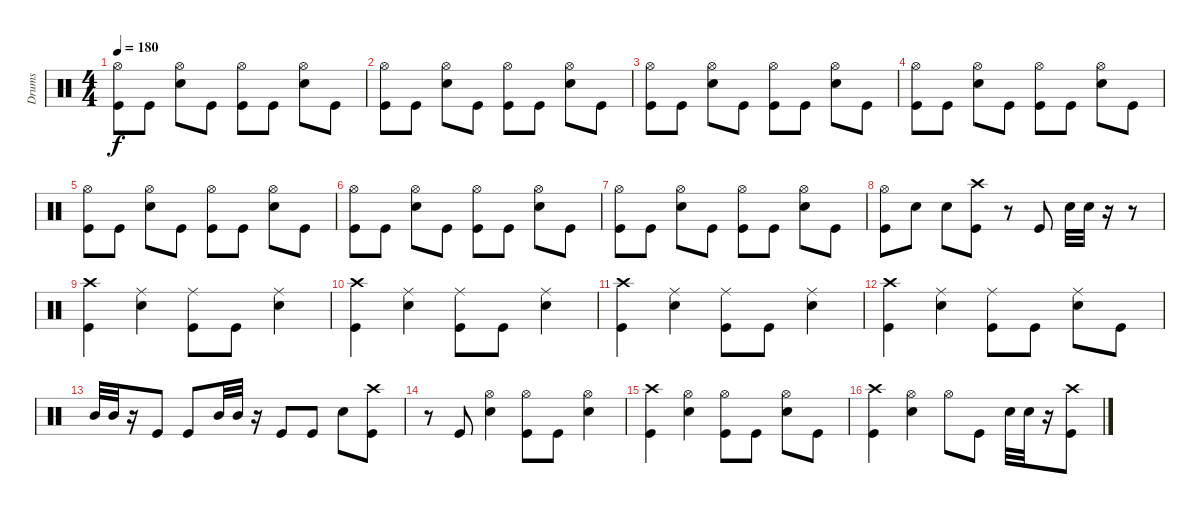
\track ("Drums" "Drums") {instrument percussion}
\staff {score}
\articulation defaults
\ts (4 4)
\tempo 180
\clef neutral
\ks c
("Hi-Hat (open)" "Kick (hit)").8{dy f} "Kick (hit)".8 ("Hi-Hat (open)" "Snare (hit) 2").8 "Kick (hit)".8 ("Hi-Hat (open)" "Kick (hit)").8 "Kick (hit)".8 ("Hi-Hat (open)" "Snare (hit) 2").8 "Kick (hit)".8 |
("Hi-Hat (open)" "Kick (hit)").8 "Kick (hit)".8 ("Hi-Hat (open)" "Snare (hit) 2").8 "Kick (hit)".8 ("Hi-Hat (open)" "Kick (hit)").8 "Kick (hit)".8 ("Hi-Hat (open)" "Snare (hit) 2").8 "Kick (hit)".8 |
("Hi-Hat (open)" "Kick (hit)").8 "Kick (hit)".8 ("Hi-Hat (open)" "Snare (hit) 2").8 "Kick (hit)".8 ("Hi-Hat (open)" "Kick (hit)").8 "Kick (hit)".8 ("Hi-Hat (open)" "Snare (hit) 2").8 "Kick (hit)".8 |
("Hi-Hat (open)" "Kick (hit)").8 "Kick (hit)".8 ("Hi-Hat (open)" "Snare (hit) 2").8 "Kick (hit)".8 ("Hi-Hat (open)" "Kick (hit)").8 "Kick (hit)".8 ("Hi-Hat (open)" "Snare (hit) 2").8 "Kick (hit)".8 |
("Hi-Hat (open)" "Kick (hit)").8 "Kick (hit)".8 ("Hi-Hat (open)" "Snare (hit) 2").8 "Kick (hit)".8 ("Hi-Hat (open)" "Kick (hit)").8 "Kick (hit)".8 ("Hi-Hat (open)" "Snare (hit) 2").8 "Kick (hit)".8 |
("Hi-Hat (open)" "Kick (hit)").8 "Kick (hit)".8 ("Hi-Hat (open)" "Snare (hit) 2").8 "Kick (hit)".8 ("Hi-Hat (open)" "Kick (hit)").8 "Kick (hit)".8 ("Hi-Hat (open)" "Snare (hit) 2").8 "Kick (hit)".8 |
("Hi-Hat (open)" "Kick (hit)").8 "Kick (hit)".8 ("Hi-Hat (open)" "Snare (hit) 2").8 "Kick (hit)".8 ("Hi-Hat (open)" "Kick (hit)").8 "Kick (hit)".8 ("Hi-Hat (open)" "Snare (hit) 2").8 "Kick (hit)".8 |
("Hi-Hat (open)" "Kick (hit)").8 "Snare (hit) 2".8 "Snare (hit) 2".8 ("Crash high (hit)" "Kick (hit)").8 r.8 "Kick (hit)".8 "Snare (hit) 2".32 "Snare (hit) 2".32 r.16 r.8 |
("Crash high (hit)" "Kick (hit)").4 ("Ride (middle)" "Snare (hit) 2").4 ("Ride (middle)" "Kick (hit)").8 "Kick (hit)".8 ("Ride (middle)" "Snare (hit) 2").4 |
("Crash high (hit)" "Kick (hit)").4 ("Ride (middle)" "Snare (hit) 2").4 ("Ride (middle)" "Kick (hit)").8 "Kick (hit)".8 ("Ride (middle)" "Snare (hit) 2").4 |
("Crash high (hit)" "Kick (hit)").4 ("Ride (middle)" "Snare (hit) 2").4 ("Ride (middle)" "Kick (hit)").8 "Kick (hit)".8 ("Ride (middle)" "Snare (hit) 2").4 |
("Crash high (hit)" "Kick (hit)").4 ("Ride (middle)" "Snare (hit) 2").4 ("Ride (middle)" "Kick (hit)").8 "Kick (hit)".8 ("Ride (middle)" "Snare (hit) 2").8 "Kick (hit)".8 |
"Mid Tom (hit)".32 "Mid Tom (hit)".32 r.16 "Kick (hit)".8 "Kick (hit)".8 "Mid Tom (hit)".32 "Mid Tom (hit)".32 r.16 "Kick (hit)".8 "Kick (hit)".8 "Snare (hit) 2".8 ("Crash high (hit)" "Kick (hit)").8 |
r.8 "Kick (hit)".8 ("Hi-Hat (open)" "Snare (hit) 2").4 ("Hi-Hat (open)" "Kick (hit)").8 "Kick (hit)".8 ("Hi-Hat (open)" "Snare (hit) 2").4 |
("Crash high (hit)" "Kick (hit)").4 ("Hi-Hat (open)" "Snare (hit) 2").4 ("Hi-Hat (open)" "Kick (hit)").8 "Kick (hit)".8 ("Hi-Hat (open)" "Snare (hit) 2").8 "Kick (hit)".8 |
("Crash high (hit)" "Kick (hit)").4 ("Hi-Hat (open)" "Snare (hit) 2").4 "Hi-Hat (open)".8 "Kick (hit)".8 "Snare (hit) 2".32 "Snare (hit) 2".32 r.16 ("Crash high (hit)" "Kick (hit)").8
